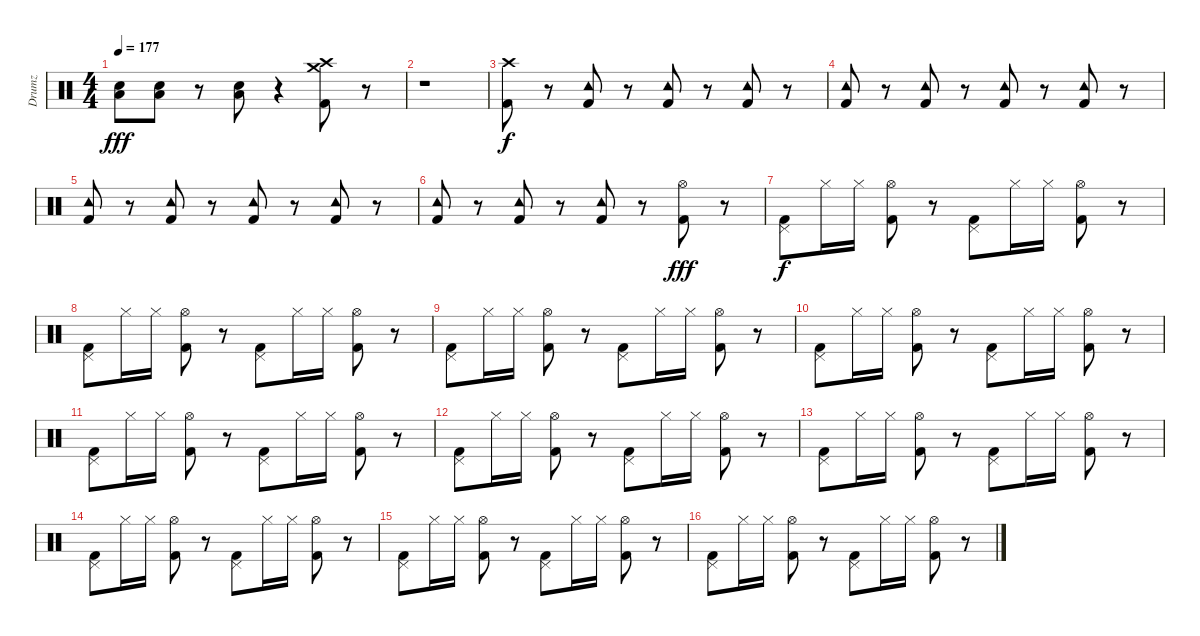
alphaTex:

\track ("Drumz" "Drumz") {instrument percussion}
\staff {score}
\articulation defaults
\ts (4 4)
\tempo 177
\clef neutral
\ks c
("Low Floor Tom (hit)" "Snare (hit) 2").8{dy fff} ("Low Floor Tom (hit)" "Snare (hit) 2").8 r.8 ("Low Floor Tom (hit)" "Snare (hit) 2").8 r.4 ("Crash medium (hit)" "Crash high (hit)" "Kick (hit) 2").8 r.8 |
r.1 |
("Crash high (hit)" "Kick (hit) 2").8{dy f} r.8 ("Tambourine (hit)" "Kick (hit) 2").8 r.8 ("Tambourine (hit)" "Kick (hit) 2").8 r.8 ("Tambourine (hit)" "Kick (hit) 2").8 r.8 |
("Kick (hit) 2" "Tambourine (hit)").8 r.8 ("Tambourine (hit)" "Kick (hit) 2").8 r.8 ("Kick (hit) 2" "Tambourine (hit)").8 r.8 ("Kick (hit) 2" "Tambourine (hit)").8 r.8 |
("Kick (hit) 2" "Tambourine (hit)").8 r.8 ("Kick (hit) 2" "Tambourine (hit)").8 r.8 ("Tambourine (hit)" "Kick (hit) 2").8 r.8 ("Kick (hit) 2" "Tambourine (hit)").8 r.8 |
("Tambourine (hit)" "Kick (hit) 2").8 r.8 ("Tambourine (hit)" "Kick (hit) 2").8 r.8 ("Tambourine (hit)" "Kick (hit) 2").8 r.8 ("Hi-Hat (open)" "Kick (hit) 2").8{dy fff} r.8 |
("Pedal Hi-Hat (hit)" "Kick (hit) 2").8{dy f} "Hi-Hat (closed)".16 "Hi-Hat (closed)".16 ("Hi-Hat (open)" "Kick (hit) 2").8 r.8 ("Pedal Hi-Hat (hit)" "Kick (hit) 2").8 "Hi-Hat (closed)".16 "Hi-Hat (closed)".16 ("Hi-Hat (open)" "Kick (hit) 2").8 r.8 |
("Pedal Hi-Hat (hit)" "Kick (hit) 2").8 "Hi-Hat (closed)".16 "Hi-Hat (closed)".16 ("Hi-Hat (open)" "Kick (hit) 2").8 r.8 ("Pedal Hi-Hat (hit)" "Kick (hit) 2").8 "Hi-Hat (closed)".16 "Hi-Hat (closed)".16 ("Hi-Hat (open)" "Kick (hit) 2").8 r.8 |
("Pedal Hi-Hat (hit)" "Kick (hit) 2").8 "Hi-Hat (closed)".16 "Hi-Hat (closed)".16 ("Hi-Hat (open)" "Kick (hit) 2").8 r.8 ("Pedal Hi-Hat (hit)" "Kick (hit) 2").8 "Hi-Hat (closed)".16 "Hi-Hat (closed)".16 ("Hi-Hat (open)" "Kick (hit) 2").8 r.8 |
("Pedal Hi-Hat (hit)" "Kick (hit) 2").8 "Hi-Hat (closed)".16 "Hi-Hat (closed)".16 ("Hi-Hat (open)" "Kick (hit) 2").8 r.8 ("Pedal Hi-Hat (hit)" "Kick (hit) 2").8 "Hi-Hat (closed)".16 "Hi-Hat (closed)".16 ("Hi-Hat (open)" "Kick (hit) 2").8 r.8 |
("Pedal Hi-Hat (hit)" "Kick (hit) 2").8 "Hi-Hat (closed)".16 "Hi-Hat (closed)".16 ("Hi-Hat (open)" "Kick (hit) 2").8 r.8 ("Pedal Hi-Hat (hit)" "Kick (hit) 2").8 "Hi-Hat (closed)".16 "Hi-Hat (closed)".16 ("Hi-Hat (open)" "Kick (hit) 2").8 r.8 |
("Pedal Hi-Hat (hit)" "Kick (hit) 2").8 "Hi-Hat (closed)".16 "Hi-Hat (closed)".16 ("Hi-Hat (open)" "Kick (hit) 2").8 r.8 ("Pedal Hi-Hat (hit)" "Kick (hit) 2").8 "Hi-Hat (closed)".16 "Hi-Hat (closed)".16 ("Hi-Hat (open)" "Kick (hit) 2").8 r.8 |
("Pedal Hi-Hat (hit)" "Kick (hit) 2").8 "Hi-Hat (closed)".16 "Hi-Hat (closed)".16 ("Hi-Hat (open)" "Kick (hit) 2").8 r.8 ("Pedal Hi-Hat (hit)" "Kick (hit) 2").8 "Hi-Hat (closed)".16 "Hi-Hat (closed)".16 ("Hi-Hat (open)" "Kick (hit) 2").8 r.8 |
("Pedal Hi-Hat (hit)" "Kick (hit) 2").8 "Hi-Hat (closed)".16 "Hi-Hat (closed)".16 ("Hi-Hat (open)" "Kick (hit) 2").8 r.8 ("Pedal Hi-Hat (hit)" "Kick (hit) 2").8 "Hi-Hat (closed)".16 "Hi-Hat (closed)".16 ("Hi-Hat (open)" "Kick (hit) 2").8 r.8 |
("Pedal Hi-Hat (hit)" "Kick (hit) 2").8 "Hi-Hat (closed)".16 "Hi-Hat (closed)".16 ("Hi-Hat (open)" "Kick (hit) 2").8 r.8 ("Pedal Hi-Hat (hit)" "Kick (hit) 2").8 "Hi-Hat (closed)".16 "Hi-Hat (closed)".16 ("Hi-Hat (open)" "Kick (hit) 2").8 r.8 |
("Pedal Hi-Hat (hit)" "Kick (hit) 2").8 "Hi-Hat (closed)".16 "Hi-Hat (closed)".16 ("Hi-Hat (open)" "Kick (hit) 2").8 r.8 ("Pedal Hi-Hat (hit)" "Kick (hit) 2").8 "Hi-Hat (closed)".16 "Hi-Hat (closed)".16 ("Hi-Hat (open)" "Kick (hit) 2").8 r.8
